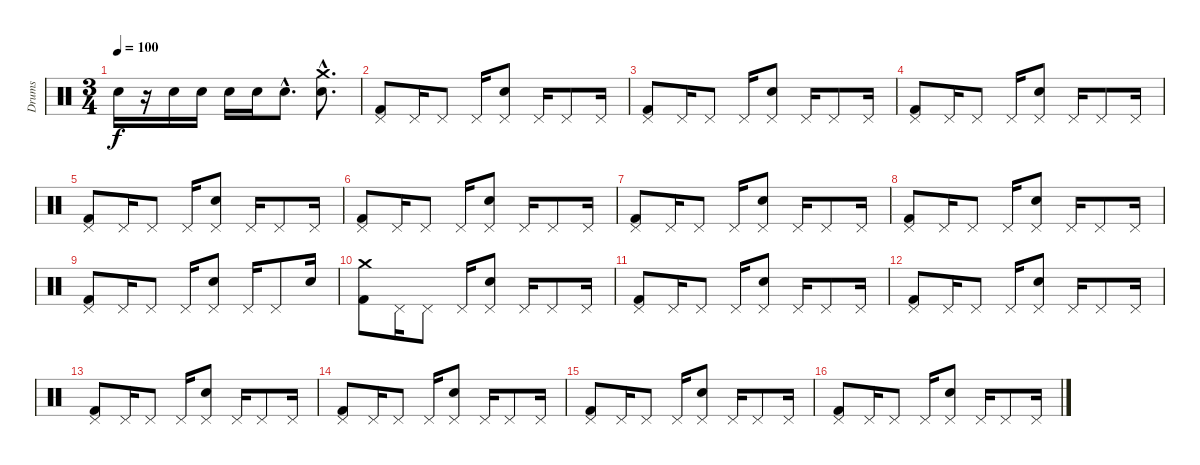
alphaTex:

\track ("Drums" "Drums") {instrument percussion}
\staff {score}
\articulation defaults
\ts (3 4)
\tempo 100
\clef neutral
\ks c "Snare (hit) 2".16{dy f}
r.16 "Snare (hit) 2".16 "Snare (hit) 2".16 "Snare (hit) 2".16 "Snare (hit) 2".16 "Snare (hit) 2"{hac}.8{d} ("Crash medium (hit)"{hac} "Snare (hit) 2"{hac}).8{d} |
("Pedal Hi-Hat (hit)" "Kick (hit) 2").8 "Pedal Hi-Hat (hit)".16 "Pedal Hi-Hat (hit)".8 "Pedal Hi-Hat (hit)".16 ("Pedal Hi-Hat (hit)" "Snare (hit) 2").8 "Pedal Hi-Hat (hit)".16 "Pedal Hi-Hat (hit)".8 "Pedal Hi-Hat (hit)".16 |
("Pedal Hi-Hat (hit)" "Kick (hit) 2").8 "Pedal Hi-Hat (hit)".16 "Pedal Hi-Hat (hit)".8 "Pedal Hi-Hat (hit)".16 ("Pedal Hi-Hat (hit)" "Snare (hit) 2").8 "Pedal Hi-Hat (hit)".16 "Pedal Hi-Hat (hit)".8 "Pedal Hi-Hat (hit)".16 |
("Pedal Hi-Hat (hit)" "Kick (hit) 2").8 "Pedal Hi-Hat (hit)".16 "Pedal Hi-Hat (hit)".8 "Pedal Hi-Hat (hit)".16 ("Pedal Hi-Hat (hit)" "Snare (hit) 2").8 "Pedal Hi-Hat (hit)".16 "Pedal Hi-Hat (hit)".8 "Pedal Hi-Hat (hit)".16 |
("Pedal Hi-Hat (hit)" "Kick (hit) 2").8 "Pedal Hi-Hat (hit)".16 "Pedal Hi-Hat (hit)".8 "Pedal Hi-Hat (hit)".16 ("Pedal Hi-Hat (hit)" "Snare (hit) 2").8 "Pedal Hi-Hat (hit)".16 "Pedal Hi-Hat (hit)".8 "Pedal Hi-Hat (hit)".16 |
("Pedal Hi-Hat (hit)" "Kick (hit) 2").8 "Pedal Hi-Hat (hit)".16 "Pedal Hi-Hat (hit)".8 "Pedal Hi-Hat (hit)".16 ("Pedal Hi-Hat (hit)" "Snare (hit) 2").8 "Pedal Hi-Hat (hit)".16 "Pedal Hi-Hat (hit)".8 "Pedal Hi-Hat (hit)".16 |
("Pedal Hi-Hat (hit)" "Kick (hit) 2").8 "Pedal Hi-Hat (hit)".16 "Pedal Hi-Hat (hit)".8 "Pedal Hi-Hat (hit)".16 ("Pedal Hi-Hat (hit)" "Snare (hit) 2").8 "Pedal Hi-Hat (hit)".16 "Pedal Hi-Hat (hit)".8 "Pedal Hi-Hat (hit)".16 |
("Pedal Hi-Hat (hit)" "Kick (hit) 2").8 "Pedal Hi-Hat (hit)".16 "Pedal Hi-Hat (hit)".8 "Pedal Hi-Hat (hit)".16 ("Pedal Hi-Hat (hit)" "Snare (hit) 2").8 "Pedal Hi-Hat (hit)".16 "Pedal Hi-Hat (hit)".8 "Pedal Hi-Hat (hit)".16 |
("Pedal Hi-Hat (hit)" "Kick (hit) 2").8 "Pedal Hi-Hat (hit)".16 "Pedal Hi-Hat (hit)".8 "Pedal Hi-Hat (hit)".16 ("Pedal Hi-Hat (hit)" "Snare (hit) 2").8 "Pedal Hi-Hat (hit)".16 "Pedal Hi-Hat (hit)".8 "Snare (hit) 2".16 |
("Crash medium (hit)" "Kick (hit) 2").8 "Pedal Hi-Hat (hit)".16 "Pedal Hi-Hat (hit)".8 "Pedal Hi-Hat (hit)".16 ("Pedal Hi-Hat (hit)" "Snare (hit) 2").8 "Pedal Hi-Hat (hit)".16 "Pedal Hi-Hat (hit)".8 "Pedal Hi-Hat (hit)".16 |
("Pedal Hi-Hat (hit)" "Kick (hit) 2").8 "Pedal Hi-Hat (hit)".16 "Pedal Hi-Hat (hit)".8 "Pedal Hi-Hat (hit)".16 ("Pedal Hi-Hat (hit)" "Snare (hit) 2").8 "Pedal Hi-Hat (hit)".16 "Pedal Hi-Hat (hit)".8 "Pedal Hi-Hat (hit)".16 |
("Pedal Hi-Hat (hit)" "Kick (hit) 2").8 "Pedal Hi-Hat (hit)".16 "Pedal Hi-Hat (hit)".8 "Pedal Hi-Hat (hit)".16 ("Pedal Hi-Hat (hit)" "Snare (hit) 2").8 "Pedal Hi-Hat (hit)".16 "Pedal Hi-Hat (hit)".8 "Pedal Hi-Hat (hit)".16 |
("Pedal Hi-Hat (hit)" "Kick (hit) 2").8 "Pedal Hi-Hat (hit)".16 "Pedal Hi-Hat (hit)".8 "Pedal Hi-Hat (hit)".16 ("Pedal Hi-Hat (hit)" "Snare (hit) 2").8 "Pedal Hi-Hat (hit)".16 "Pedal Hi-Hat (hit)".8 "Pedal Hi-Hat (hit)".16 |
("Pedal Hi-Hat (hit)" "Kick (hit) 2").8 "Pedal Hi-Hat (hit)".16 "Pedal Hi-Hat (hit)".8 "Pedal Hi-Hat (hit)".16 ("Pedal Hi-Hat (hit)" "Snare (hit) 2").8 "Pedal Hi-Hat (hit)".16 "Pedal Hi-Hat (hit)".8 "Pedal Hi-Hat (hit)".16 |
("Pedal Hi-Hat (hit)" "Kick (hit) 2").8 "Pedal Hi-Hat (hit)".16 "Pedal Hi-Hat (hit)".8 "Pedal Hi-Hat (hit)".16 ("Pedal Hi-Hat (hit)" "Snare (hit) 2").8 "Pedal Hi-Hat (hit)".16 "Pedal Hi-Hat (hit)".8 "Pedal Hi-Hat (hit)".16 |
("Pedal Hi-Hat (hit)" "Kick (hit) 2").8 "Pedal Hi-Hat (hit)".16 "Pedal Hi-Hat (hit)".8 "Pedal Hi-Hat (hit)".16 ("Pedal Hi-Hat (hit)" "Snare (hit) 2").8 "Pedal Hi-Hat (hit)".16 "Pedal Hi-Hat (hit)".8 "Pedal Hi-Hat (hit)".16
